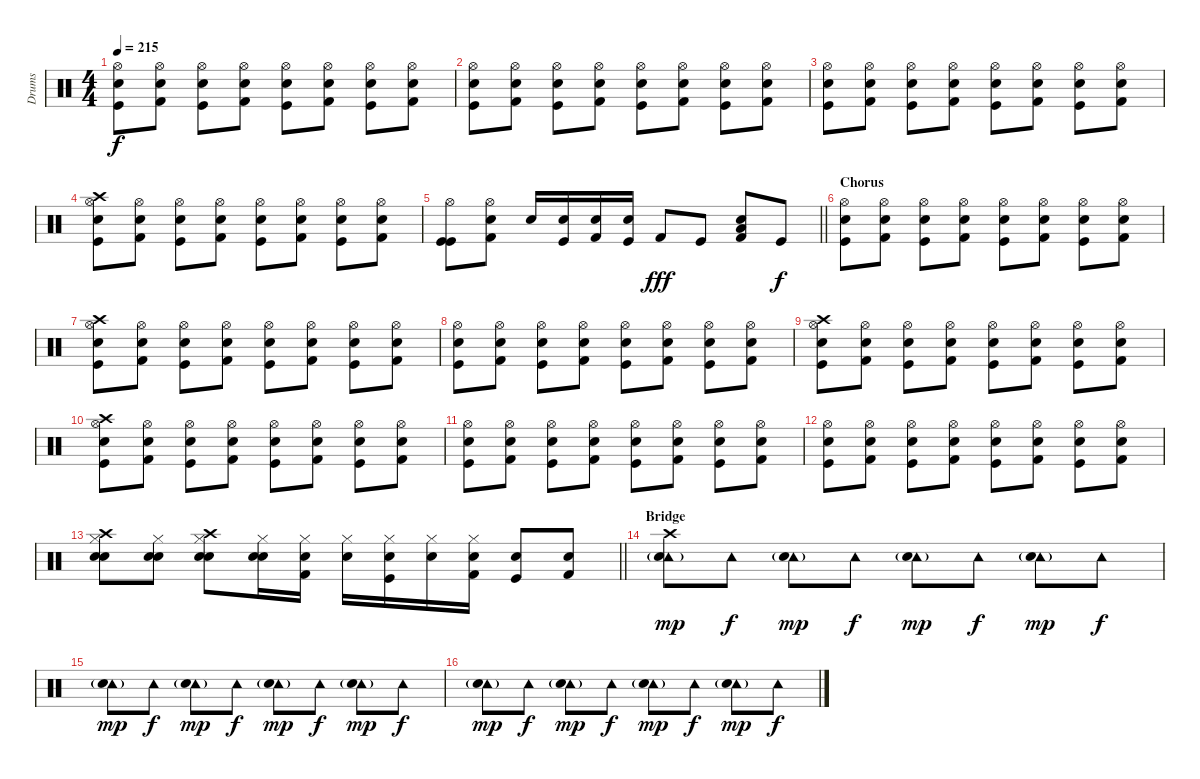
\track ("Drums" "Drums") {instrument percussion}
\staff {score}
\articulation defaults
\ts (4 4)
\tempo 215
\clef neutral
\ks c
("Hi-Hat (open)" "Snare (hit) 2" "Kick (hit)").8{dy f} ("Hi-Hat (open)" "Electric Snare (hit)" "Kick (hit) 2").8 ("Hi-Hat (open)" "Snare (hit) 2" "Kick (hit)").8 ("Hi-Hat (open)" "Electric Snare (hit)" "Kick (hit) 2").8 ("Hi-Hat (open)" "Snare (hit) 2" "Kick (hit)").8 ("Hi-Hat (open)" "Electric Snare (hit)" "Kick (hit) 2").8 ("Hi-Hat (open)" "Snare (hit) 2" "Kick (hit)").8 ("Hi-Hat (open)" "Electric Snare (hit)" "Kick (hit) 2").8 |
("Hi-Hat (open)" "Snare (hit) 2" "Kick (hit)").8 ("Hi-Hat (open)" "Electric Snare (hit)" "Kick (hit) 2").8 ("Hi-Hat (open)" "Snare (hit) 2" "Kick (hit)").8 ("Hi-Hat (open)" "Electric Snare (hit)" "Kick (hit) 2").8 ("Hi-Hat (open)" "Snare (hit) 2" "Kick (hit)").8 ("Hi-Hat (open)" "Electric Snare (hit)" "Kick (hit) 2").8 ("Hi-Hat (open)" "Snare (hit) 2" "Kick (hit)").8 ("Hi-Hat (open)" "Electric Snare (hit)" "Kick (hit) 2").8 |
("Hi-Hat (open)" "Snare (hit) 2" "Kick (hit)").8 ("Hi-Hat (open)" "Electric Snare (hit)" "Kick (hit) 2").8 ("Hi-Hat (open)" "Snare (hit) 2" "Kick (hit)").8 ("Hi-Hat (open)" "Electric Snare (hit)" "Kick (hit) 2").8 ("Hi-Hat (open)" "Snare (hit) 2" "Kick (hit)").8 ("Hi-Hat (open)" "Electric Snare (hit)" "Kick (hit) 2").8 ("Hi-Hat (open)" "Snare (hit) 2" "Kick (hit)").8 ("Hi-Hat (open)" "Electric Snare (hit)" "Kick (hit) 2").8 |
("Crash high (hit)" "Hi-Hat (open)" "Snare (hit) 2" "Kick (hit)").8 ("Hi-Hat (open)" "Electric Snare (hit)" "Kick (hit) 2").8 ("Hi-Hat (open)" "Snare (hit) 2" "Kick (hit)").8 ("Hi-Hat (open)" "Electric Snare (hit)" "Kick (hit) 2").8 ("Hi-Hat (open)" "Snare (hit) 2" "Kick (hit)").8 ("Hi-Hat (open)" "Electric Snare (hit)" "Kick (hit) 2").8 ("Hi-Hat (open)" "Snare (hit) 2" "Kick (hit)").8 ("Hi-Hat (open)" "Electric Snare (hit)" "Kick (hit) 2").8 |
\barLineRight lightlight
("Hi-Hat (open)" "Kick (hit)" "Kick (hit)").8 ("Hi-Hat (open)" "Electric Snare (hit)" "Kick (hit) 2").8 "Snare (hit) 2".16 ("Snare (hit) 2" "Kick (hit)").16 ("Snare (hit) 2" "Kick (hit) 2").16 ("Snare (hit) 2" "Kick (hit)").16 "Kick (hit) 2".8{dy fff} "Kick (hit)".8 ("Snare (hit) 2" "Low Floor Tom (hit)" "Kick (hit) 2").8 "Kick (hit)".8{dy f} |
\section ("" "Chorus")
("Hi-Hat (open)" "Snare (hit) 2" "Kick (hit)").8 ("Hi-Hat (open)" "Electric Snare (hit)" "Kick (hit) 2").8 ("Hi-Hat (open)" "Snare (hit) 2" "Kick (hit)").8 ("Hi-Hat (open)" "Electric Snare (hit)" "Kick (hit) 2").8 ("Hi-Hat (open)" "Snare (hit) 2" "Kick (hit)").8 ("Hi-Hat (open)" "Electric Snare (hit)" "Kick (hit) 2").8 ("Hi-Hat (open)" "Snare (hit) 2" "Kick (hit)").8 ("Hi-Hat (open)" "Electric Snare (hit)" "Kick (hit) 2").8 |
("Crash high (hit)" "Hi-Hat (open)" "Snare (hit) 2" "Kick (hit)").8 ("Hi-Hat (open)" "Electric Snare (hit)" "Kick (hit) 2").8 ("Hi-Hat (open)" "Snare (hit) 2" "Kick (hit)").8 ("Hi-Hat (open)" "Electric Snare (hit)" "Kick (hit) 2").8 ("Hi-Hat (open)" "Snare (hit) 2" "Kick (hit)").8 ("Hi-Hat (open)" "Electric Snare (hit)" "Kick (hit) 2").8 ("Hi-Hat (open)" "Snare (hit) 2" "Kick (hit)").8 ("Hi-Hat (open)" "Electric Snare (hit)" "Kick (hit) 2").8 |
("Hi-Hat (open)" "Snare (hit) 2" "Kick (hit)").8 ("Hi-Hat (open)" "Electric Snare (hit)" "Kick (hit) 2").8 ("Hi-Hat (open)" "Snare (hit) 2" "Kick (hit)").8 ("Hi-Hat (open)" "Electric Snare (hit)" "Kick (hit) 2").8 ("Hi-Hat (open)" "Snare (hit) 2" "Kick (hit)").8 ("Hi-Hat (open)" "Electric Snare (hit)" "Kick (hit) 2").8 ("Hi-Hat (open)" "Snare (hit) 2" "Kick (hit)").8 ("Hi-Hat (open)" "Electric Snare (hit)" "Kick (hit) 2").8 |
("Crash high (hit)" "Hi-Hat (open)" "Snare (hit) 2" "Kick (hit)").8 ("Hi-Hat (open)" "Electric Snare (hit)" "Kick (hit) 2").8 ("Hi-Hat (open)" "Snare (hit) 2" "Kick (hit)").8 ("Hi-Hat (open)" "Electric Snare (hit)" "Kick (hit) 2").8 ("Hi-Hat (open)" "Snare (hit) 2" "Kick (hit)").8 ("Hi-Hat (open)" "Electric Snare (hit)" "Kick (hit) 2").8 ("Hi-Hat (open)" "Snare (hit) 2" "Kick (hit)").8 ("Hi-Hat (open)" "Electric Snare (hit)" "Kick (hit) 2").8 |
("Crash high (hit)" "Hi-Hat (open)" "Snare (hit) 2" "Kick (hit)").8 ("Hi-Hat (open)" "Electric Snare (hit)" "Kick (hit) 2").8 ("Hi-Hat (open)" "Snare (hit) 2" "Kick (hit)").8 ("Hi-Hat (open)" "Electric Snare (hit)" "Kick (hit) 2").8 ("Hi-Hat (open)" "Snare (hit) 2" "Kick (hit)").8 ("Hi-Hat (open)" "Electric Snare (hit)" "Kick (hit) 2").8 ("Hi-Hat (open)" "Snare (hit) 2" "Kick (hit)").8 ("Hi-Hat (open)" "Electric Snare (hit)" "Kick (hit) 2").8 |
("Hi-Hat (open)" "Snare (hit) 2" "Kick (hit)").8 ("Hi-Hat (open)" "Electric Snare (hit)" "Kick (hit) 2").8 ("Hi-Hat (open)" "Snare (hit) 2" "Kick (hit)").8 ("Hi-Hat (open)" "Electric Snare (hit)" "Kick (hit) 2").8 ("Hi-Hat (open)" "Snare (hit) 2" "Kick (hit)").8 ("Hi-Hat (open)" "Electric Snare (hit)" "Kick (hit) 2").8 ("Hi-Hat (open)" "Snare (hit) 2" "Kick (hit)").8 ("Hi-Hat (open)" "Electric Snare (hit)" "Kick (hit) 2").8 |
("Hi-Hat (open)" "Snare (hit) 2" "Kick (hit)").8 ("Hi-Hat (open)" "Electric Snare (hit)" "Kick (hit) 2").8 ("Hi-Hat (open)" "Snare (hit) 2" "Kick (hit)").8 ("Hi-Hat (open)" "Electric Snare (hit)" "Kick (hit) 2").8 ("Hi-Hat (open)" "Snare (hit) 2" "Kick (hit)").8 ("Hi-Hat (open)" "Electric Snare (hit)" "Kick (hit) 2").8 ("Hi-Hat (open)" "Snare (hit) 2" "Kick (hit)").8 ("Hi-Hat (open)" "Electric Snare (hit)" "Kick (hit) 2").8 |
\barLineRight lightlight
("Snare (hit) 2" "Electric Snare (hit)" "Crash high (hit)" "Hi-Hat (closed)").8 ("Snare (hit) 2" "Electric Snare (hit)" "Hi-Hat (closed)").8 ("Snare (hit) 2" "Electric Snare (hit)" "Crash high (hit)" "Hi-Hat (closed)").8 ("Snare (hit) 2" "Electric Snare (hit)" "Hi-Hat (closed)").16 ("Kick (hit) 2" "Electric Snare (hit)" "Hi-Hat (closed)").16 ("Snare (hit) 2" "Hi-Hat (closed)").16 ("Kick (hit)" "Electric Snare (hit)" "Hi-Hat (closed)").16 ("Snare (hit) 2" "Hi-Hat (closed)").16 ("Kick (hit) 2" "Electric Snare (hit)" "Hi-Hat (closed)").16 ("Snare (hit) 2" "Kick (hit)").8 ("Snare (hit) 2" "Kick (hit) 2").8 |
\section ("" "Bridge")
("Crash high (hit)" "Tambourine (hit)" "Electric Snare (hit)"{g}).8{dy mp} "Tambourine (hit)".8{dy f} ("Tambourine (hit)" "Electric Snare (hit)"{g}).8{dy mp} "Tambourine (hit)".8{dy f} ("Tambourine (hit)" "Electric Snare (hit)"{g}).8{dy mp} "Tambourine (hit)".8{dy f} ("Tambourine (hit)" "Electric Snare (hit)"{g}).8{dy mp} "Tambourine (hit)".8{dy f} |
("Tambourine (hit)" "Electric Snare (hit)"{g}).8{dy mp} "Tambourine (hit)".8{dy f} ("Tambourine (hit)" "Electric Snare (hit)"{g}).8{dy mp} "Tambourine (hit)".8{dy f} ("Tambourine (hit)" "Electric Snare (hit)"{g}).8{dy mp} "Tambourine (hit)".8{dy f} ("Tambourine (hit)" "Electric Snare (hit)"{g}).8{dy mp} "Tambourine (hit)".8{dy f} |
("Tambourine (hit)" "Electric Snare (hit)"{g}).8{dy mp} "Tambourine (hit)".8{dy f} ("Tambourine (hit)" "Electric Snare (hit)"{g}).8{dy mp} "Tambourine (hit)".8{dy f} ("Tambourine (hit)" "Electric Snare (hit)"{g}).8{dy mp} "Tambourine (hit)".8{dy f} ("Tambourine (hit)" "Electric Snare (hit)"{g}).8{dy mp} "Tambourine (hit)".8{dy f}
